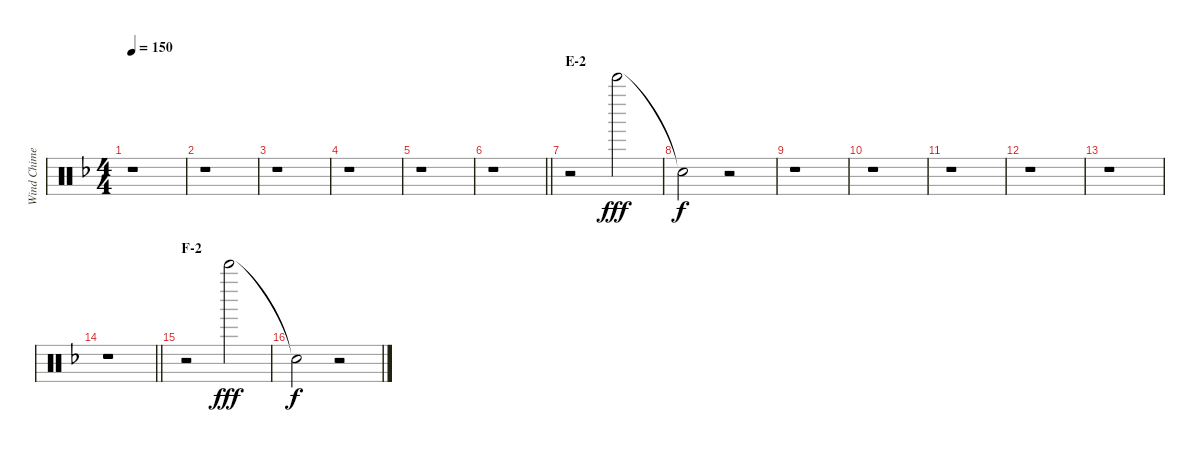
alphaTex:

\track ("Wind Chime" "Wind Chime") {instrument percussion}
\staff {score}
\articulation defaults
\ts (4 4)
\tempo 150
\clef neutral
\ks f
r.1{dy f} |
r.1 |
r.1 |
r.1 |
r.1 |
\barLineRight lightlight
r.1 |
\section ("" "E-2")
r.2 "Bell Tree (hit)".2{dy fff} |
"Snare (hit)"{t}.2{dy f} r.2 |
r.1 |
r.1 |
r.1 |
r.1 |
r.1 |
\barLineRight lightlight
r.1 |
\section ("" "F-2")
r.2 "Bell Tree (hit)".2{dy fff} |
"Snare (hit)"{t}.2{dy f} r.2
